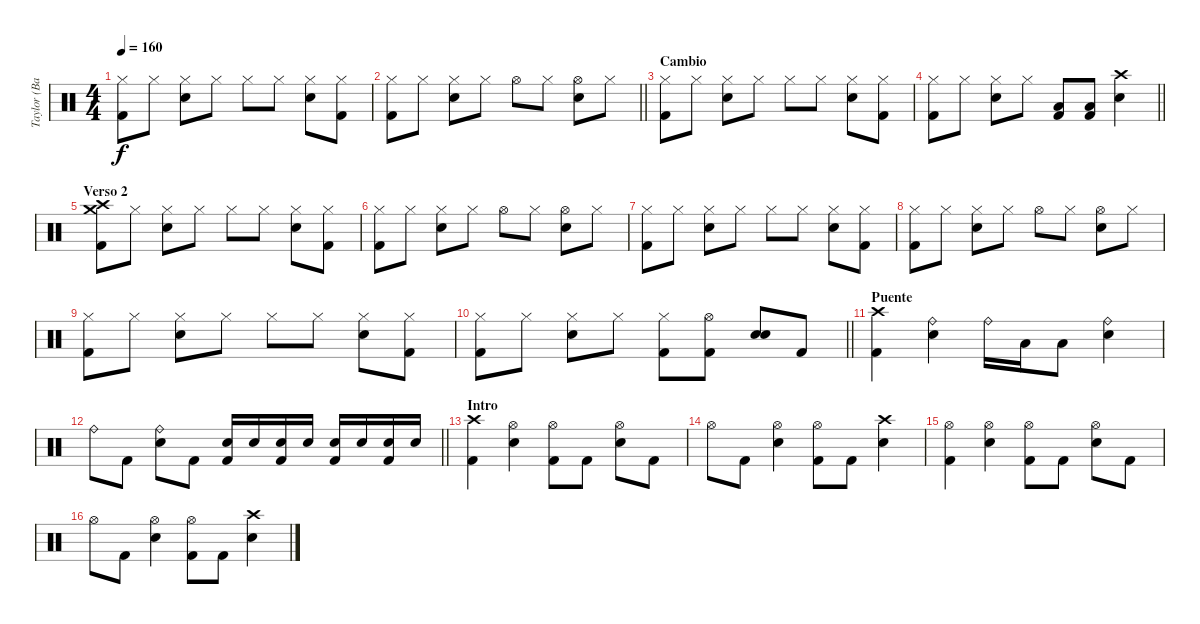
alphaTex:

\track ("Taylor (Batería)" "Taylor (Ba") {instrument percussion}
\staff {score}
\articulation defaults
\ts (4 4)
\tempo 160
\clef neutral
\ks c
("Hi-Hat (closed)" "Kick (hit) 2").8{dy f} "Hi-Hat (closed)".8 ("Hi-Hat (closed)" "Electric Snare (hit)").8 "Hi-Hat (closed)".8 "Hi-Hat (closed)".8 "Hi-Hat (closed)".8 ("Hi-Hat (closed)" "Electric Snare (hit)").8 ("Hi-Hat (closed)" "Kick (hit) 2").8 |
\barLineRight lightlight
("Hi-Hat (closed)" "Kick (hit) 2").8 "Hi-Hat (closed)".8 ("Hi-Hat (closed)" "Electric Snare (hit)").8 "Hi-Hat (closed)".8 "Hi-Hat (open)".8 "Hi-Hat (closed)".8 ("Hi-Hat (open)" "Electric Snare (hit)").8 "Hi-Hat (closed)".8 |
\section ("" "Cambio")
("Hi-Hat (closed)" "Kick (hit) 2").8 "Hi-Hat (closed)".8 ("Hi-Hat (closed)" "Electric Snare (hit)").8 "Hi-Hat (closed)".8 "Hi-Hat (closed)".8 "Hi-Hat (closed)".8 ("Hi-Hat (closed)" "Electric Snare (hit)").8 ("Hi-Hat (closed)" "Kick (hit) 2").8 |
\barLineRight lightlight
("Hi-Hat (closed)" "Kick (hit) 2").8 "Hi-Hat (closed)".8 ("Hi-Hat (closed)" "Electric Snare (hit)").8 "Hi-Hat (closed)".8 ("Low Tom (hit)" "Kick (hit) 2").8 ("Low Tom (hit)" "Kick (hit) 2").8 ("Crash high (hit)" "Electric Snare (hit)").4 |
\section ("" "Verso 2")
("Crash high (hit)" "Crash medium (hit)" "Kick (hit) 2").8 "Hi-Hat (closed)".8 ("Hi-Hat (closed)" "Electric Snare (hit)").8 "Hi-Hat (closed)".8 "Hi-Hat (closed)".8 "Hi-Hat (closed)".8 ("Hi-Hat (closed)" "Electric Snare (hit)").8 ("Hi-Hat (closed)" "Kick (hit) 2").8 |
("Hi-Hat (closed)" "Kick (hit) 2").8 "Hi-Hat (closed)".8 ("Hi-Hat (closed)" "Electric Snare (hit)").8 "Hi-Hat (closed)".8 "Hi-Hat (open)".8 "Hi-Hat (closed)".8 ("Hi-Hat (open)" "Electric Snare (hit)").8 "Hi-Hat (closed)".8 |
("Hi-Hat (closed)" "Kick (hit) 2").8 "Hi-Hat (closed)".8 ("Hi-Hat (closed)" "Electric Snare (hit)").8 "Hi-Hat (closed)".8 "Hi-Hat (closed)".8 "Hi-Hat (closed)".8 ("Hi-Hat (closed)" "Electric Snare (hit)").8 ("Hi-Hat (closed)" "Kick (hit) 2").8 |
("Hi-Hat (closed)" "Kick (hit) 2").8 "Hi-Hat (closed)".8 ("Hi-Hat (closed)" "Electric Snare (hit)").8 "Hi-Hat (closed)".8 "Hi-Hat (open)".8 "Hi-Hat (closed)".8 ("Hi-Hat (open)" "Electric Snare (hit)").8 "Hi-Hat (closed)".8 |
("Hi-Hat (closed)" "Kick (hit) 2").8 "Hi-Hat (closed)".8 ("Hi-Hat (closed)" "Electric Snare (hit)").8 "Hi-Hat (closed)".8 "Hi-Hat (closed)".8 "Hi-Hat (closed)".8 ("Hi-Hat (closed)" "Electric Snare (hit)").8 ("Hi-Hat (closed)" "Kick (hit) 2").8 |
\barLineRight lightlight
("Hi-Hat (closed)" "Kick (hit) 2").8 "Hi-Hat (closed)".8 ("Hi-Hat (closed)" "Electric Snare (hit)").8 "Hi-Hat (closed)".8 ("Hi-Hat (closed)" "Kick (hit) 2").8 ("Hi-Hat (open)" "Kick (hit) 2").8 ("Electric Snare (hit)" "Electric Snare (hit)").8 "Kick (hit) 2".8 |
\section ("" "Puente")
("Crash high (hit)" "Kick (hit) 2").4 ("Ride (bell)" "Electric Snare (hit)").4 "Ride (bell)".16 "Low Tom (hit)".16 "Low Tom (hit)".8 ("Ride (bell)" "Electric Snare (hit)").4 |
\barLineRight lightlight "Ride (bell)".8 "Kick (hit) 2".8
("Ride (bell)" "Electric Snare (hit)").8 "Kick (hit) 2".8 ("Electric Snare (hit)" "Kick (hit) 2").16 "Electric Snare (hit)".16 ("Electric Snare (hit)" "Kick (hit) 2").16 "Electric Snare (hit)".16 ("Electric Snare (hit)" "Kick (hit) 2").16 "Electric Snare (hit)".16 ("Electric Snare (hit)" "Kick (hit) 2").16 "Electric Snare (hit)".16 |
\section ("" "Intro")
("Crash high (hit)" "Kick (hit) 2").4 ("Hi-Hat (open)" "Electric Snare (hit)").4 ("Hi-Hat (open)" "Kick (hit) 2").8 "Kick (hit) 2".8 ("Hi-Hat (open)" "Electric Snare (hit)").8 "Kick (hit) 2".8 |
"Hi-Hat (open)".8 "Kick (hit) 2".8 ("Hi-Hat (open)" "Electric Snare (hit)").4 ("Hi-Hat (open)" "Kick (hit) 2").8 "Kick (hit) 2".8 ("Crash high (hit)" "Electric Snare (hit)").4 |
("Hi-Hat (open)" "Kick (hit) 2").4 ("Hi-Hat (open)" "Electric Snare (hit)").4 ("Hi-Hat (open)" "Kick (hit) 2").8 "Kick (hit) 2".8 ("Hi-Hat (open)" "Electric Snare (hit)").8 "Kick (hit) 2".8 |
"Hi-Hat (open)".8 "Kick (hit) 2".8 ("Hi-Hat (open)" "Electric Snare (hit)").4 ("Hi-Hat (open)" "Kick (hit) 2").8 "Kick (hit) 2".8 ("Crash high (hit)" "Electric Snare (hit)").4
